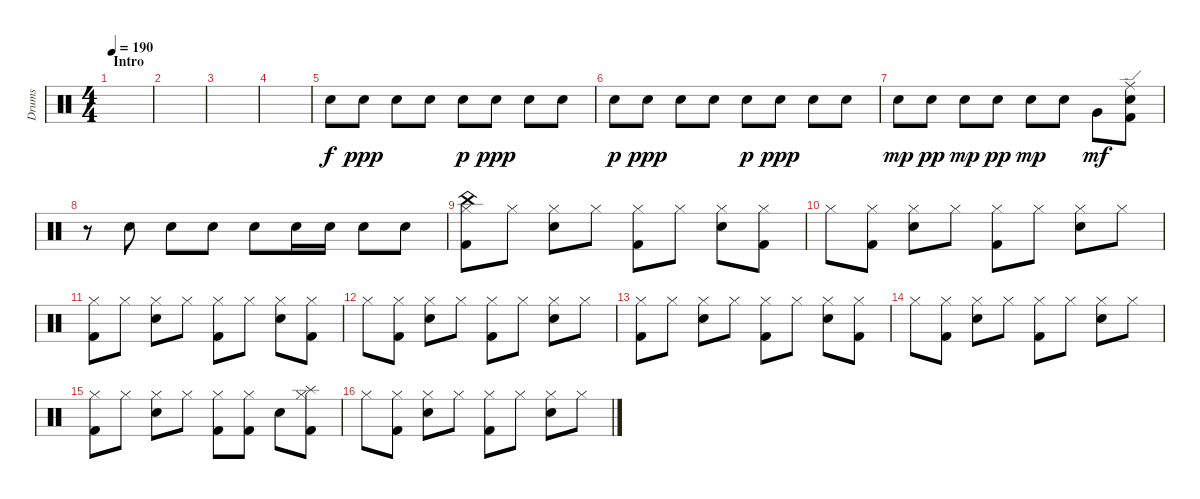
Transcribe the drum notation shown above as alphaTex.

\defaultSystemsLayout 4
\bracketExtendMode groupsimilarinstruments
\otherSystemsTrackNameOrientation horizontal
\track ("Prakarsh" "Drums") {instrument percussion}
\staff {score}
\articulation defaults
\ts (4 4)
\section ("" "Intro")
\tempo 190
\clef neutral
\ks c
|
|
|
|
"Snare (hit) 2".8{beam Down} "Snare (hit) 2".8{dy ppp beam Down} "Snare (hit) 2".8{beam Down} "Snare (hit) 2".8{beam Down} "Snare (hit) 2".8{dy p beam Down} "Snare (hit) 2".8{dy ppp beam Down} "Snare (hit) 2".8{beam Down} "Snare (hit) 2".8{beam Down} |
"Snare (hit) 2".8{dy p beam Down} "Snare (hit) 2".8{dy ppp beam Down} "Snare (hit) 2".8{beam Down} "Snare (hit) 2".8{beam Down} "Snare (hit) 2".8{dy p beam Down} "Snare (hit) 2".8{dy ppp beam Down} "Snare (hit) 2".8{beam Down} "Snare (hit) 2".8{beam Down} |
"Snare (hit) 2".8{dy mp beam Down} "Snare (hit) 2".8{dy pp beam Down} "Snare (hit) 2".8{dy mp beam Down} "Snare (hit) 2".8{dy pp beam Down} "Snare (hit) 2".8{dy mp beam Down} "Snare (hit) 2".8{beam Down} "Very Low Tom (hit)".8{dy mf beam Down} ("Snare (hit) 2" "Ride (edge)" "Kick (hit) 2").8{beam Down} |
r.8{beam Down} "Snare (hit) 2".8{beam Down} "Snare (hit) 2".8{beam Down} "Snare (hit) 2".8{beam Down} "Snare (hit) 2".8{beam Down} "Snare (hit) 2".16{beam Down} "Snare (hit) 2".16{beam Down} "Snare (hit) 2".8{beam Down} "Snare (hit) 2".8{beam Down} |
("Kick (hit) 2" "Hi-Hat (closed)" "China (hit)").8{beam Down} "Hi-Hat (closed)".8{beam Down} ("Hi-Hat (closed)" "Snare (hit) 2").8{beam Down} "Hi-Hat (closed)".8{beam Down} ("Hi-Hat (closed)" "Kick (hit) 2").8{beam Down} "Hi-Hat (closed)".8{beam Down} ("Hi-Hat (closed)" "Snare (hit) 2").8{beam Down} ("Hi-Hat (closed)" "Kick (hit) 2").8{beam Down} |
"Hi-Hat (closed)".8{beam Down} ("Hi-Hat (closed)" "Kick (hit) 2").8{beam Down} ("Hi-Hat (closed)" "Snare (hit) 2").8{beam Down} "Hi-Hat (closed)".8{beam Down} ("Hi-Hat (closed)" "Kick (hit) 2").8{beam Down} "Hi-Hat (closed)".8{beam Down} ("Hi-Hat (closed)" "Snare (hit) 2").8{beam Down} "Hi-Hat (closed)".8{beam Down} |
("Kick (hit) 2" "Hi-Hat (closed)").8{beam Down} "Hi-Hat (closed)".8{beam Down} ("Hi-Hat (closed)" "Snare (hit) 2").8{beam Down} "Hi-Hat (closed)".8{beam Down} ("Hi-Hat (closed)" "Kick (hit) 2").8{beam Down} "Hi-Hat (closed)".8{beam Down} ("Hi-Hat (closed)" "Snare (hit) 2").8{beam Down} ("Hi-Hat (closed)" "Kick (hit) 2").8{beam Down} |
"Hi-Hat (closed)".8{beam Down} ("Hi-Hat (closed)" "Kick (hit) 2").8{beam Down} ("Hi-Hat (closed)" "Snare (hit) 2").8{beam Down} "Hi-Hat (closed)".8{beam Down} ("Hi-Hat (closed)" "Kick (hit) 2").8{beam Down} "Hi-Hat (closed)".8{beam Down} ("Hi-Hat (closed)" "Snare (hit) 2").8{beam Down} "Hi-Hat (closed)".8{beam Down} |
("Kick (hit) 2" "Hi-Hat (closed)").8{beam Down} "Hi-Hat (closed)".8{beam Down} ("Hi-Hat (closed)" "Snare (hit) 2").8{beam Down} "Hi-Hat (closed)".8{beam Down} ("Hi-Hat (closed)" "Kick (hit) 2").8{beam Down} "Hi-Hat (closed)".8{beam Down} ("Hi-Hat (closed)" "Snare (hit) 2").8{beam Down} ("Hi-Hat (closed)" "Kick (hit) 2").8{beam Down} |
"Hi-Hat (closed)".8{beam Down} ("Hi-Hat (closed)" "Kick (hit) 2").8{beam Down} ("Hi-Hat (closed)" "Snare (hit) 2").8{beam Down} "Hi-Hat (closed)".8{beam Down} ("Hi-Hat (closed)" "Kick (hit) 2").8{beam Down} "Hi-Hat (closed)".8{beam Down} ("Hi-Hat (closed)" "Snare (hit) 2").8{beam Down} "Hi-Hat (closed)".8{beam Down} |
("Kick (hit) 2" "Hi-Hat (closed)").8{beam Down} "Hi-Hat (closed)".8{beam Down} ("Hi-Hat (closed)" "Snare (hit) 2").8{beam Down} "Hi-Hat (closed)".8{beam Down} ("Hi-Hat (closed)" "Kick (hit) 2").8{beam Down} ("Hi-Hat (closed)" "Kick (hit) 2").8{beam Down} "Snare (hit) 2".8{beam Down} ("Hi-Hat (closed)" "Kick (hit) 2" "Splash (hit)").8{beam Down} |
"Hi-Hat (closed)".8{beam Down} ("Hi-Hat (closed)" "Kick (hit) 2").8{beam Down} ("Hi-Hat (closed)" "Snare (hit) 2").8{beam Down} "Hi-Hat (closed)".8{beam Down} ("Hi-Hat (closed)" "Kick (hit) 2").8{beam Down} "Hi-Hat (closed)".8{beam Down} ("Hi-Hat (closed)" "Snare (hit) 2").8{beam Down} "Hi-Hat (closed)".8{beam Down}
